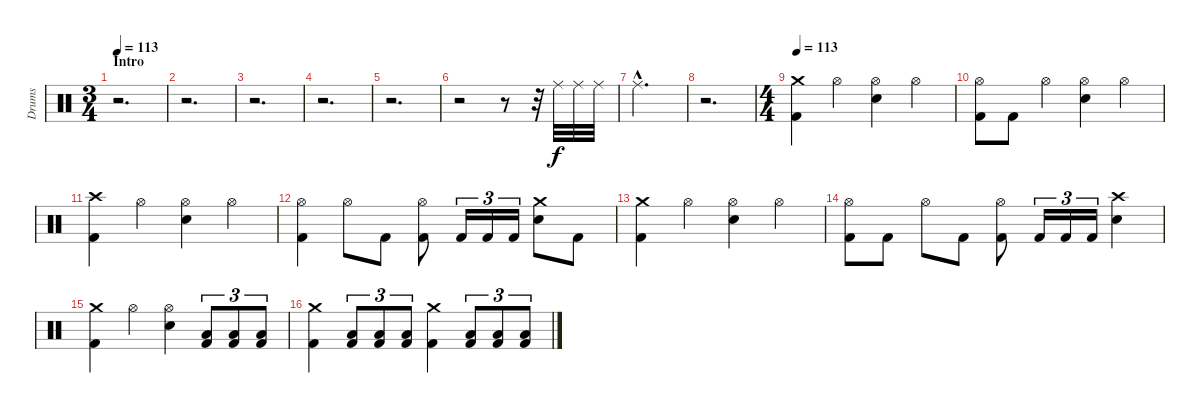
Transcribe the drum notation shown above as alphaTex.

\track ("Drums" "Drums") {instrument percussion}
\staff {score}
\articulation defaults
\ts (3 4)
\section ("" "Intro")
\tempo 113
\tempo 100
\tempo 113
\clef neutral
\ks c
r.2{d dy f} |
r.2{d} |
r.2{d} |
r.2{d} |
r.2{d} |
r.2 r.8 r.32 "Ride (middle)".32 "Ride (middle)".32 "Ride (middle)".32 |
"Ride (middle)"{hac}.2{d} |
r.2{d} |
\ts (4 4)
\tempo 113
("Kick (hit) 2" "Crash medium (hit)").4 "Hi-Hat (open)".4 ("Electric Snare (hit)" "Hi-Hat (open)").4 "Hi-Hat (open)".4 |
("Kick (hit) 2" "Hi-Hat (open)").8 "Kick (hit) 2".8 "Hi-Hat (open)".4 ("Electric Snare (hit)" "Hi-Hat (open)").4 "Hi-Hat (open)".4 |
("Kick (hit) 2" "Crash high (hit)").4 "Hi-Hat (open)".4 ("Electric Snare (hit)" "Hi-Hat (open)").4 "Hi-Hat (open)".4 |
("Kick (hit) 2" "Hi-Hat (open)").4 "Hi-Hat (open)".8 "Kick (hit) 2".8 ("Kick (hit) 2" "Hi-Hat (open)").8 "Kick (hit) 2".16{tu (3 2)} "Kick (hit) 2".16{tu (3 2)} "Kick (hit) 2".16{tu (3 2)} ("Electric Snare (hit)" "Crash medium (hit)").8 "Kick (hit) 2".8 |
("Kick (hit) 2" "Crash medium (hit)").4 "Hi-Hat (open)".4 ("Electric Snare (hit)" "Hi-Hat (open)").4 "Hi-Hat (open)".4 |
("Kick (hit) 2" "Hi-Hat (open)").8 "Kick (hit) 2".8 "Hi-Hat (open)".8 "Kick (hit) 2".8 ("Kick (hit) 2" "Hi-Hat (open)").8 "Kick (hit) 2".16{tu (3 2)} "Kick (hit) 2".16{tu (3 2)} "Kick (hit) 2".16{tu (3 2)} ("Electric Snare (hit)" "Crash high (hit)").4 |
("Kick (hit) 2" "Crash medium (hit)").4 "Hi-Hat (open)".4 ("Electric Snare (hit)" "Hi-Hat (open)").4 ("Kick (hit) 2" "Low Tom (hit)").8{tu (3 2)} ("Kick (hit) 2" "Low Tom (hit)").8{tu (3 2)} ("Kick (hit) 2" "Low Tom (hit)").8{tu (3 2)} |
("Kick (hit) 2" "Crash medium (hit)").4 ("Kick (hit) 2" "Low Tom (hit)").8{tu (3 2)} ("Kick (hit) 2" "Low Tom (hit)").8{tu (3 2)} ("Kick (hit) 2" "Low Tom (hit)").8{tu (3 2)} ("Kick (hit) 2" "Crash medium (hit)").4 ("Kick (hit) 2" "Low Tom (hit)").8{tu (3 2)} ("Kick (hit) 2" "Low Tom (hit)").8{tu (3 2)} ("Kick (hit) 2" "Low Tom (hit)").8{tu (3 2)}
